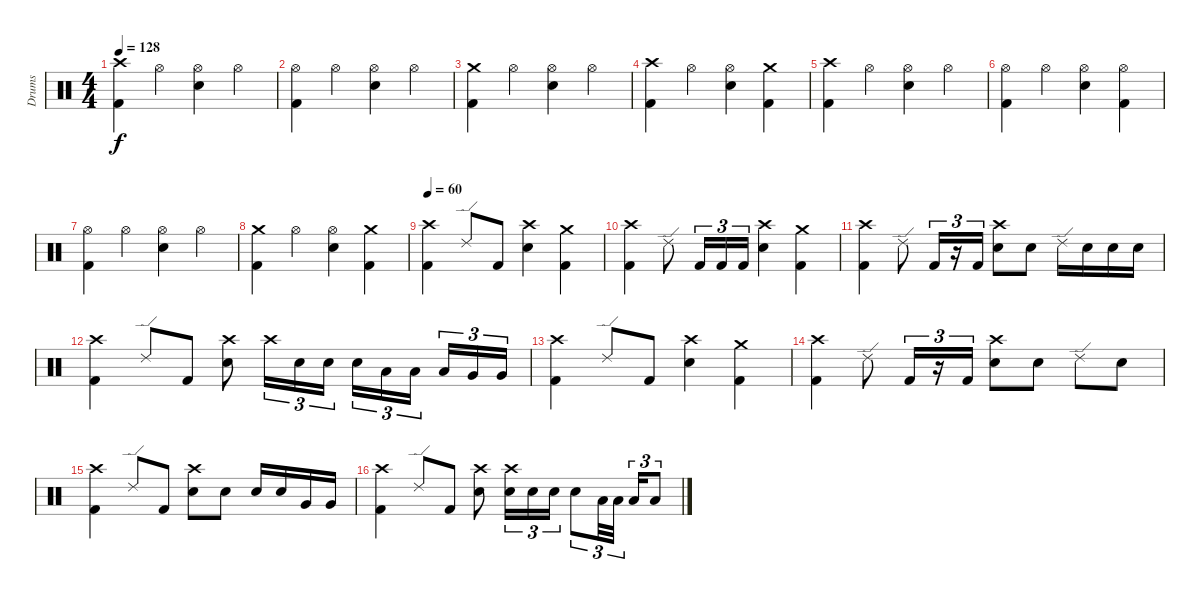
\track ("Drums" "Drums") {instrument percussion}
\staff {score}
\articulation defaults
\ts (4 4)
\tempo 128
\clef neutral
\ks c
("Crash high (hit)" "Kick (hit) 2").4{dy f} "Hi-Hat (open)".4 ("Hi-Hat (open)" "Electric Snare (hit)").4 "Hi-Hat (open)".4 |
("Hi-Hat (open)" "Kick (hit) 2").4 "Hi-Hat (open)".4 ("Hi-Hat (open)" "Electric Snare (hit)").4 "Hi-Hat (open)".4 |
("Crash medium (hit)" "Kick (hit) 2").4 "Hi-Hat (open)".4 ("Hi-Hat (open)" "Electric Snare (hit)").4 "Hi-Hat (open)".4 |
("Crash high (hit)" "Kick (hit) 2").4 "Hi-Hat (open)".4 ("Hi-Hat (open)" "Electric Snare (hit)").4 ("Crash medium (hit)" "Kick (hit) 2").4 |
("Crash high (hit)" "Kick (hit) 2").4 "Hi-Hat (open)".4 ("Hi-Hat (open)" "Electric Snare (hit)").4 "Hi-Hat (open)".4 |
("Hi-Hat (open)" "Kick (hit) 2").4 "Hi-Hat (open)".4 ("Hi-Hat (open)" "Electric Snare (hit)").4 ("Hi-Hat (open)" "Kick (hit) 2").4 |
("Hi-Hat (open)" "Kick (hit) 2").4 "Hi-Hat (open)".4 ("Hi-Hat (open)" "Electric Snare (hit)").4 "Hi-Hat (open)".4 |
("Crash medium (hit)" "Kick (hit) 2").4 "Hi-Hat (open)".4 ("Hi-Hat (open)" "Electric Snare (hit)").4 ("Crash medium (hit)" "Kick (hit) 2").4 |
\tempo 60
("Crash high (hit)" "Kick (hit) 2").4 "Ride (edge) 2".8 "Kick (hit) 2".8 ("Crash high (hit)" "Electric Snare (hit)").4 ("Crash medium (hit)" "Kick (hit) 2").4 |
("Crash high (hit)" "Kick (hit) 2").4 "Ride (edge) 2".8 "Kick (hit) 2".16{tu (3 2)} "Kick (hit) 2".16{tu (3 2)} "Kick (hit) 2".16{tu (3 2)} ("Crash high (hit)" "Electric Snare (hit)").4 ("Crash medium (hit)" "Kick (hit) 2").4 |
("Crash high (hit)" "Kick (hit) 2").4 "Ride (edge) 2".8 "Kick (hit) 2".16{tu (3 2)} r.16{tu (3 2)} "Kick (hit) 2".16{tu (3 2)} ("Crash high (hit)" "Electric Snare (hit)").8 "Electric Snare (hit)".8 "Ride (edge) 2".16 "Electric Snare (hit)".16 "Electric Snare (hit)".16 "Electric Snare (hit)".16 |
("Crash high (hit)" "Kick (hit) 2").4 "Ride (edge) 2".8 "Kick (hit) 2".8 ("Crash high (hit)" "Electric Snare (hit)").8 "Crash high (hit)".16{tu (3 2)} "Electric Snare (hit)".16{tu (3 2)} "Electric Snare (hit)".16{tu (3 2)} "Electric Snare (hit)".16{tu (3 2)} "Low Tom (hit)".16{tu (3 2)} "Low Tom (hit)".16{tu (3 2)} "Low Tom (hit)".16{tu (3 2)} "Very Low Tom (hit)".16{tu (3 2)} "Very Low Tom (hit)".16{tu (3 2)} |
("Crash high (hit)" "Kick (hit) 2").4 "Ride (edge) 2".8 "Kick (hit) 2".8 ("Crash high (hit)" "Electric Snare (hit)").4 ("Crash medium (hit)" "Kick (hit) 2").4 |
("Crash high (hit)" "Kick (hit) 2").4 "Ride (edge) 2".8 "Kick (hit) 2".16{tu (3 2)} r.16{tu (3 2)} "Kick (hit) 2".16{tu (3 2)} ("Crash high (hit)" "Electric Snare (hit)").8 "Electric Snare (hit)".8 "Ride (edge) 2".8 "Electric Snare (hit)".8 |
("Crash high (hit)" "Kick (hit) 2").4 "Ride (edge) 2".8 "Kick (hit) 2".8 ("Crash high (hit)" "Electric Snare (hit)").8 "Electric Snare (hit)".8 "Electric Snare (hit)".16 "Electric Snare (hit)".16 "Very Low Tom (hit)".16 "Very Low Tom (hit)".16 |
("Crash high (hit)" "Kick (hit) 2").4 "Ride (edge) 2".8 "Kick (hit) 2".8 ("Crash high (hit)" "Electric Snare (hit)").8 ("Crash high (hit)" "Electric Snare (hit)").16{tu (3 2)} "Electric Snare (hit)".16{tu (3 2)} "Electric Snare (hit)".16{tu (3 2)} "Electric Snare (hit)".8{tu (3 2)} "Low Tom (hit)".32{tu (3 2)} "Low Tom (hit)".32{tu (3 2)} "Low Tom (hit)".16{tu (3 2)} "Low Tom (hit)".8{tu (3 2)}
